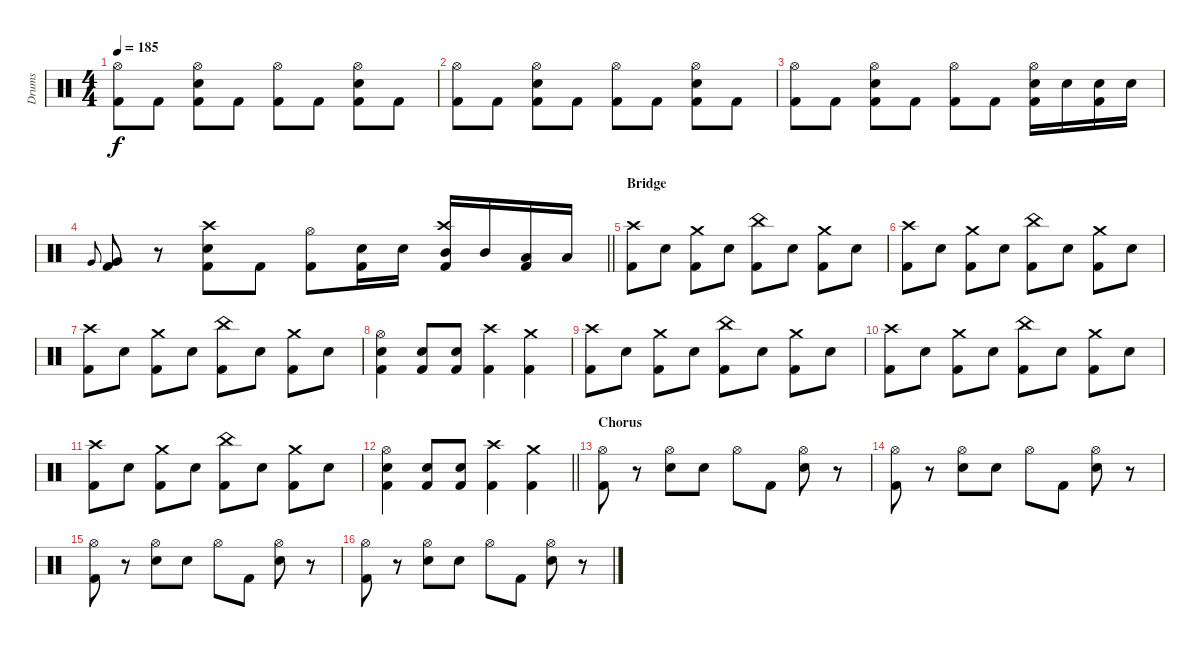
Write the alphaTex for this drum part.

\track ("Drums" "Drums") {instrument percussion}
\staff {score}
\articulation defaults
\ts (4 4)
\tempo 185
\clef neutral
\ks c
("Hi-Hat (open)" "Kick (hit) 2").8{dy f} "Kick (hit) 2".8 ("Hi-Hat (open)" "Snare (hit) 2" "Kick (hit) 2").8 "Kick (hit) 2".8 ("Hi-Hat (open)" "Kick (hit) 2").8 "Kick (hit) 2".8 ("Hi-Hat (open)" "Snare (hit) 2" "Kick (hit) 2").8 "Kick (hit) 2".8 |
("Hi-Hat (open)" "Kick (hit) 2").8 "Kick (hit) 2".8 ("Hi-Hat (open)" "Snare (hit) 2" "Kick (hit) 2").8 "Kick (hit) 2".8 ("Hi-Hat (open)" "Kick (hit) 2").8 "Kick (hit) 2".8 ("Hi-Hat (open)" "Snare (hit) 2" "Kick (hit) 2").8 "Kick (hit) 2".8 |
("Hi-Hat (open)" "Kick (hit) 2").8 "Kick (hit) 2".8 ("Hi-Hat (open)" "Snare (hit) 2" "Kick (hit) 2").8 "Kick (hit) 2".8 ("Hi-Hat (open)" "Kick (hit) 2").8 "Kick (hit) 2".8 ("Hi-Hat (open)" "Snare (hit) 2" "Kick (hit) 2").16 "Snare (hit) 2".16 ("Snare (hit) 2" "Kick (hit) 2").16 "Snare (hit) 2".16 |
\barLineRight lightlight "Very Low Tom (hit)".8{gr onbeat}
("Very Low Tom (hit)" "Kick (hit) 2").8 r.8 ("Crash high (hit)" "Snare (hit) 2" "Kick (hit) 2").8 "Kick (hit) 2".8 ("Hi-Hat (open)" "Kick (hit) 2").8 ("Snare (hit) 2" "Kick (hit) 2").16 "Snare (hit) 2".16 ("Crash high (hit)" "Mid Tom (hit)" "Kick (hit) 2").16 "Mid Tom (hit)".16 ("Low Tom (hit)" "Kick (hit) 2").16 "Low Tom (hit)".16 |
\section ("" "Bridge")
("Crash high (hit)" "Kick (hit) 2").8 "Snare (hit) 2".8 ("Crash medium (hit)" "Kick (hit) 2").8 "Snare (hit) 2".8 ("China (hit)" "Kick (hit) 2").8 "Snare (hit) 2".8 ("Crash medium (hit)" "Kick (hit) 2").8 "Snare (hit) 2".8 |
("Crash high (hit)" "Kick (hit) 2").8 "Snare (hit) 2".8 ("Crash medium (hit)" "Kick (hit) 2").8 "Snare (hit) 2".8 ("China (hit)" "Kick (hit) 2").8 "Snare (hit) 2".8 ("Crash medium (hit)" "Kick (hit) 2").8 "Snare (hit) 2".8 |
("Crash high (hit)" "Kick (hit) 2").8 "Snare (hit) 2".8 ("Crash medium (hit)" "Kick (hit) 2").8 "Snare (hit) 2".8 ("China (hit)" "Kick (hit) 2").8 "Snare (hit) 2".8 ("Crash medium (hit)" "Kick (hit) 2").8 "Snare (hit) 2".8 |
("Hi-Hat (open)" "Snare (hit) 2" "Kick (hit) 2").4 ("Snare (hit) 2" "Kick (hit) 2").8 ("Snare (hit) 2" "Kick (hit) 2").8 ("Crash high (hit)" "Kick (hit) 2").4 ("Crash medium (hit)" "Kick (hit) 2").4 |
("Crash high (hit)" "Kick (hit) 2").8 "Snare (hit) 2".8 ("Crash medium (hit)" "Kick (hit) 2").8 "Snare (hit) 2".8 ("China (hit)" "Kick (hit) 2").8 "Snare (hit) 2".8 ("Crash medium (hit)" "Kick (hit) 2").8 "Snare (hit) 2".8 |
("Crash high (hit)" "Kick (hit) 2").8 "Snare (hit) 2".8 ("Crash medium (hit)" "Kick (hit) 2").8 "Snare (hit) 2".8 ("China (hit)" "Kick (hit) 2").8 "Snare (hit) 2".8 ("Crash medium (hit)" "Kick (hit) 2").8 "Snare (hit) 2".8 |
("Crash high (hit)" "Kick (hit) 2").8 "Snare (hit) 2".8 ("Crash medium (hit)" "Kick (hit) 2").8 "Snare (hit) 2".8 ("China (hit)" "Kick (hit) 2").8 "Snare (hit) 2".8 ("Crash medium (hit)" "Kick (hit) 2").8 "Snare (hit) 2".8 |
\barLineRight lightlight
("Hi-Hat (open)" "Snare (hit) 2" "Kick (hit) 2").4 ("Snare (hit) 2" "Kick (hit) 2").8 ("Snare (hit) 2" "Kick (hit) 2").8 ("Crash high (hit)" "Kick (hit) 2").4 ("Crash medium (hit)" "Kick (hit) 2").4 |
\section ("" "Chorus")
("Hi-Hat (open)" "Kick (hit) 2").8 r.8 ("Hi-Hat (open)" "Snare (hit) 2").8 "Snare (hit) 2".8 "Hi-Hat (open)".8 "Kick (hit) 2".8 ("Hi-Hat (open)" "Snare (hit) 2").8 r.8 |
("Hi-Hat (open)" "Kick (hit) 2").8 r.8 ("Hi-Hat (open)" "Snare (hit) 2").8 "Snare (hit) 2".8 "Hi-Hat (open)".8 "Kick (hit) 2".8 ("Hi-Hat (open)" "Snare (hit) 2").8 r.8 |
("Hi-Hat (open)" "Kick (hit) 2").8 r.8 ("Hi-Hat (open)" "Snare (hit) 2").8 "Snare (hit) 2".8 "Hi-Hat (open)".8 "Kick (hit) 2".8 ("Hi-Hat (open)" "Snare (hit) 2").8 r.8 |
("Hi-Hat (open)" "Kick (hit) 2").8 r.8 ("Hi-Hat (open)" "Snare (hit) 2").8 "Snare (hit) 2".8 "Hi-Hat (open)".8 "Kick (hit) 2".8 ("Hi-Hat (open)" "Snare (hit) 2").8 r.8
